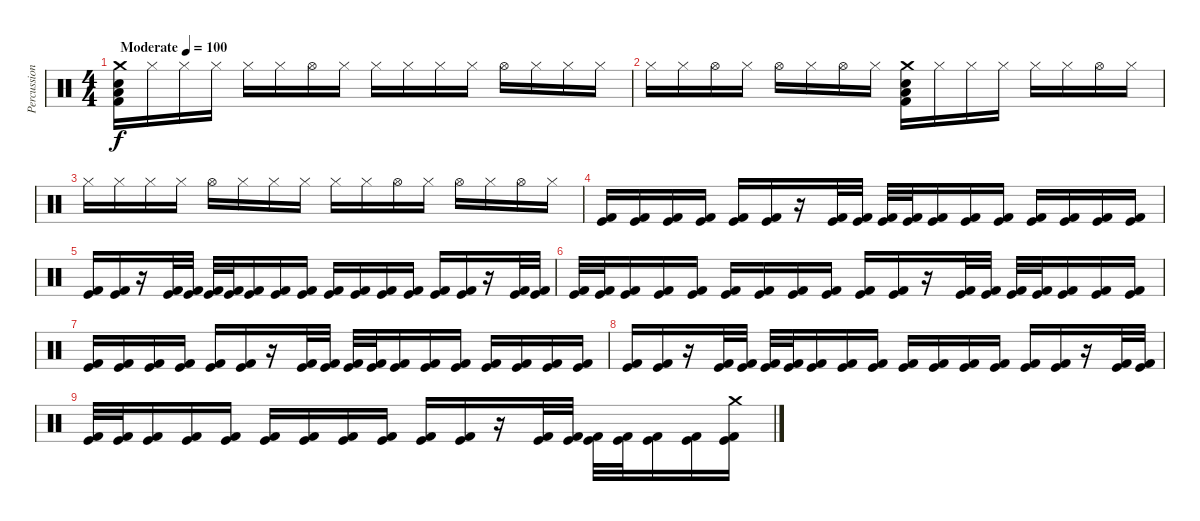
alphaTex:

\track ("Percussion" "Percussion") {instrument percussion}
\staff {score}
\articulation defaults
\ts (4 4)
\tempo (100 "Moderate")
\clef neutral
\ks c
("Crash medium (hit)" "Low Floor Tom (hit)" "Electric Snare (hit)" "Kick (hit) 2").16{dy f} "Hi-Hat (closed)".16 "Hi-Hat (closed)".16 "Hi-Hat (closed)".16 "Hi-Hat (closed)".16 "Hi-Hat (closed)".16 "Hi-Hat (open)".16 "Hi-Hat (closed)".16 "Hi-Hat (closed)".16 "Hi-Hat (closed)".16 "Hi-Hat (closed)".16 "Hi-Hat (closed)".16 "Hi-Hat (open)".16 "Hi-Hat (closed)".16 "Hi-Hat (closed)".16 "Hi-Hat (closed)".16 |
"Hi-Hat (closed)".16 "Hi-Hat (closed)".16 "Hi-Hat (open)".16 "Hi-Hat (closed)".16 "Hi-Hat (open)".16 "Hi-Hat (closed)".16 "Hi-Hat (open)".16 "Hi-Hat (closed)".16 ("Crash medium (hit)" "Low Floor Tom (hit)" "Electric Snare (hit)" "Kick (hit) 2").16 "Hi-Hat (closed)".16 "Hi-Hat (closed)".16 "Hi-Hat (closed)".16 "Hi-Hat (closed)".16 "Hi-Hat (closed)".16 "Hi-Hat (open)".16 "Hi-Hat (closed)".16 |
"Hi-Hat (closed)".16 "Hi-Hat (closed)".16 "Hi-Hat (closed)".16 "Hi-Hat (closed)".16 "Hi-Hat (open)".16 "Hi-Hat (closed)".16 "Hi-Hat (closed)".16 "Hi-Hat (closed)".16 "Hi-Hat (closed)".16 "Hi-Hat (closed)".16 "Hi-Hat (open)".16 "Hi-Hat (closed)".16 "Hi-Hat (open)".16 "Hi-Hat (closed)".16 "Hi-Hat (open)".16 "Hi-Hat (closed)".16 |
("Kick (hit) 2" "Kick (hit)").16 ("Kick (hit) 2" "Kick (hit)").16 ("Kick (hit) 2" "Kick (hit)").16 ("Kick (hit) 2" "Kick (hit)").16 ("Kick (hit) 2" "Kick (hit)").16 ("Kick (hit) 2" "Kick (hit)").16 r.16 ("Kick (hit) 2" "Kick (hit)").32 ("Kick (hit) 2" "Kick (hit)").32 ("Kick (hit) 2" "Kick (hit)").32 ("Kick (hit) 2" "Kick (hit)").32 ("Kick (hit) 2" "Kick (hit)").16 ("Kick (hit) 2" "Kick (hit)").16 ("Kick (hit) 2" "Kick (hit)").16 ("Kick (hit) 2" "Kick (hit)").16 ("Kick (hit) 2" "Kick (hit)").16 ("Kick (hit) 2" "Kick (hit)").16 ("Kick (hit) 2" "Kick (hit)").16 |
("Kick (hit) 2" "Kick (hit)").16 ("Kick (hit) 2" "Kick (hit)").16 r.16 ("Kick (hit) 2" "Kick (hit)").32 ("Kick (hit) 2" "Kick (hit)").32 ("Kick (hit) 2" "Kick (hit)").32 ("Kick (hit) 2" "Kick (hit)").32 ("Kick (hit) 2" "Kick (hit)").16 ("Kick (hit) 2" "Kick (hit)").16 ("Kick (hit) 2" "Kick (hit)").16 ("Kick (hit) 2" "Kick (hit)").16 ("Kick (hit) 2" "Kick (hit)").16 ("Kick (hit) 2" "Kick (hit)").16 ("Kick (hit) 2" "Kick (hit)").16 ("Kick (hit) 2" "Kick (hit)").16 ("Kick (hit) 2" "Kick (hit)").16 r.16 ("Kick (hit) 2" "Kick (hit)").32 ("Kick (hit) 2" "Kick (hit)").32 |
("Kick (hit) 2" "Kick (hit)").32 ("Kick (hit) 2" "Kick (hit)").32 ("Kick (hit) 2" "Kick (hit)").16 ("Kick (hit) 2" "Kick (hit)").16 ("Kick (hit) 2" "Kick (hit)").16 ("Kick (hit) 2" "Kick (hit)").16 ("Kick (hit) 2" "Kick (hit)").16 ("Kick (hit) 2" "Kick (hit)").16 ("Kick (hit) 2" "Kick (hit)").16 ("Kick (hit) 2" "Kick (hit)").16 ("Kick (hit) 2" "Kick (hit)").16 r.16 ("Kick (hit) 2" "Kick (hit)").32 ("Kick (hit) 2" "Kick (hit)").32 ("Kick (hit) 2" "Kick (hit)").32 ("Kick (hit) 2" "Kick (hit)").32 ("Kick (hit) 2" "Kick (hit)").16 ("Kick (hit) 2" "Kick (hit)").16 ("Kick (hit) 2" "Kick (hit)").16 |
("Kick (hit) 2" "Kick (hit)").16 ("Kick (hit) 2" "Kick (hit)").16 ("Kick (hit) 2" "Kick (hit)").16 ("Kick (hit) 2" "Kick (hit)").16 ("Kick (hit) 2" "Kick (hit)").16 ("Kick (hit) 2" "Kick (hit)").16 r.16 ("Kick (hit) 2" "Kick (hit)").32 ("Kick (hit) 2" "Kick (hit)").32 ("Kick (hit) 2" "Kick (hit)").32 ("Kick (hit) 2" "Kick (hit)").32 ("Kick (hit) 2" "Kick (hit)").16 ("Kick (hit) 2" "Kick (hit)").16 ("Kick (hit) 2" "Kick (hit)").16 ("Kick (hit) 2" "Kick (hit)").16 ("Kick (hit) 2" "Kick (hit)").16 ("Kick (hit) 2" "Kick (hit)").16 ("Kick (hit) 2" "Kick (hit)").16 |
("Kick (hit) 2" "Kick (hit)").16 ("Kick (hit) 2" "Kick (hit)").16 r.16 ("Kick (hit) 2" "Kick (hit)").32 ("Kick (hit) 2" "Kick (hit)").32 ("Kick (hit) 2" "Kick (hit)").32 ("Kick (hit) 2" "Kick (hit)").32 ("Kick (hit) 2" "Kick (hit)").16 ("Kick (hit) 2" "Kick (hit)").16 ("Kick (hit) 2" "Kick (hit)").16 ("Kick (hit) 2" "Kick (hit)").16 ("Kick (hit) 2" "Kick (hit)").16 ("Kick (hit) 2" "Kick (hit)").16 ("Kick (hit) 2" "Kick (hit)").16 ("Kick (hit) 2" "Kick (hit)").16 ("Kick (hit) 2" "Kick (hit)").16 r.16 ("Kick (hit) 2" "Kick (hit)").32 ("Kick (hit) 2" "Kick (hit)").32 |
("Kick (hit) 2" "Kick (hit)").32 ("Kick (hit) 2" "Kick (hit)").32 ("Kick (hit) 2" "Kick (hit)").16 ("Kick (hit) 2" "Kick (hit)").16 ("Kick (hit) 2" "Kick (hit)").16 ("Kick (hit) 2" "Kick (hit)").16 ("Kick (hit) 2" "Kick (hit)").16 ("Kick (hit) 2" "Kick (hit)").16 ("Kick (hit) 2" "Kick (hit)").16 ("Kick (hit) 2" "Kick (hit)").16 ("Kick (hit) 2" "Kick (hit)").16 r.16 ("Kick (hit) 2" "Kick (hit)").32 ("Kick (hit) 2" "Kick (hit)").32 ("Kick (hit) 2" "Kick (hit)").32 ("Kick (hit) 2" "Kick (hit)").32 ("Kick (hit) 2" "Kick (hit)").16 ("Kick (hit) 2" "Kick (hit)").16 ("Kick (hit) 2" "Kick (hit)" "Crash medium (hit)").16
